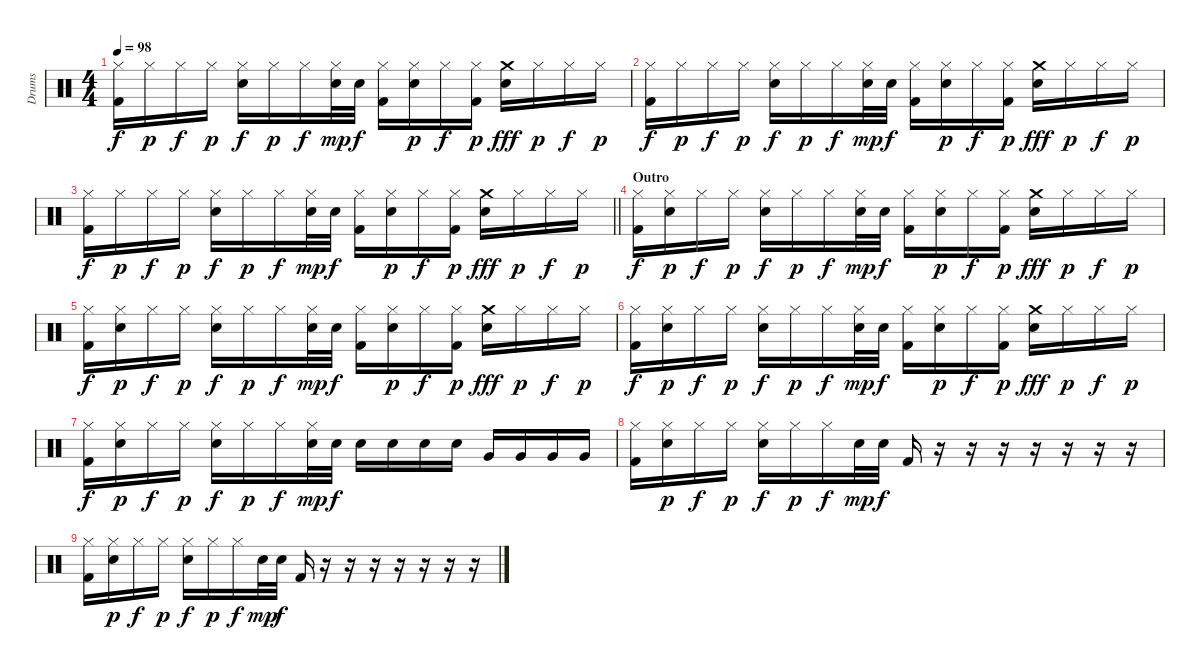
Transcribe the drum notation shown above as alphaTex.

\track ("Drums" "Drums") {instrument percussion}
\staff {score}
\articulation defaults
\ts (4 4)
\tempo 98
\clef neutral
\ks c
("Hi-Hat (closed)" "Kick (hit) 2").16{dy f} "Hi-Hat (closed)".16{dy p} "Hi-Hat (closed)".16{dy f} "Hi-Hat (closed)".16{dy p} ("Hi-Hat (closed)" "Electric Snare (hit)").16{dy f} "Hi-Hat (closed)".16{dy p} "Hi-Hat (closed)".16{dy f} ("Hi-Hat (closed)" "Electric Snare (hit)").32{dy mp} "Electric Snare (hit)".32{dy f} ("Hi-Hat (closed)" "Kick (hit) 2").16 ("Hi-Hat (closed)" "Electric Snare (hit)").16{dy p} "Hi-Hat (closed)".16{dy f} ("Hi-Hat (closed)" "Kick (hit) 2").16{dy p} ("Crash medium (hit)" "Electric Snare (hit)").16{dy fff} "Hi-Hat (closed)".16{dy p} "Hi-Hat (closed)".16{dy f} "Hi-Hat (closed)".16{dy p} |
("Hi-Hat (closed)" "Kick (hit) 2").16{dy f} "Hi-Hat (closed)".16{dy p} "Hi-Hat (closed)".16{dy f} "Hi-Hat (closed)".16{dy p} ("Hi-Hat (closed)" "Electric Snare (hit)").16{dy f} "Hi-Hat (closed)".16{dy p} "Hi-Hat (closed)".16{dy f} ("Hi-Hat (closed)" "Electric Snare (hit)").32{dy mp} "Electric Snare (hit)".32{dy f} ("Hi-Hat (closed)" "Kick (hit) 2").16 ("Hi-Hat (closed)" "Electric Snare (hit)").16{dy p} "Hi-Hat (closed)".16{dy f} ("Hi-Hat (closed)" "Kick (hit) 2").16{dy p} ("Crash medium (hit)" "Electric Snare (hit)").16{dy fff} "Hi-Hat (closed)".16{dy p} "Hi-Hat (closed)".16{dy f} "Hi-Hat (closed)".16{dy p} |
\barLineRight lightlight
("Hi-Hat (closed)" "Kick (hit) 2").16{dy f} "Hi-Hat (closed)".16{dy p} "Hi-Hat (closed)".16{dy f} "Hi-Hat (closed)".16{dy p} ("Hi-Hat (closed)" "Electric Snare (hit)").16{dy f} "Hi-Hat (closed)".16{dy p} "Hi-Hat (closed)".16{dy f} ("Hi-Hat (closed)" "Electric Snare (hit)").32{dy mp} "Electric Snare (hit)".32{dy f} ("Hi-Hat (closed)" "Kick (hit) 2").16 ("Hi-Hat (closed)" "Electric Snare (hit)").16{dy p} "Hi-Hat (closed)".16{dy f} ("Hi-Hat (closed)" "Kick (hit) 2").16{dy p} ("Crash medium (hit)" "Electric Snare (hit)").16{dy fff} "Hi-Hat (closed)".16{dy p} "Hi-Hat (closed)".16{dy f} "Hi-Hat (closed)".16{dy p} |
\section ("" "Outro")
("Hi-Hat (closed)" "Kick (hit) 2").16{dy f} ("Hi-Hat (closed)" "Electric Snare (hit)").16{dy p} "Hi-Hat (closed)".16{dy f} "Hi-Hat (closed)".16{dy p} ("Hi-Hat (closed)" "Electric Snare (hit)").16{dy f} "Hi-Hat (closed)".16{dy p} "Hi-Hat (closed)".16{dy f} ("Hi-Hat (closed)" "Electric Snare (hit)").32{dy mp} "Electric Snare (hit)".32{dy f} ("Hi-Hat (closed)" "Kick (hit) 2").16 ("Hi-Hat (closed)" "Electric Snare (hit)").16{dy p} "Hi-Hat (closed)".16{dy f} ("Hi-Hat (closed)" "Kick (hit) 2").16{dy p} ("Crash medium (hit)" "Electric Snare (hit)").16{dy fff} "Hi-Hat (closed)".16{dy p} "Hi-Hat (closed)".16{dy f} "Hi-Hat (closed)".16{dy p} |
("Hi-Hat (closed)" "Kick (hit) 2").16{dy f} ("Hi-Hat (closed)" "Electric Snare (hit)").16{dy p} "Hi-Hat (closed)".16{dy f} "Hi-Hat (closed)".16{dy p} ("Hi-Hat (closed)" "Electric Snare (hit)").16{dy f} "Hi-Hat (closed)".16{dy p} "Hi-Hat (closed)".16{dy f} ("Hi-Hat (closed)" "Electric Snare (hit)").32{dy mp} "Electric Snare (hit)".32{dy f} ("Hi-Hat (closed)" "Kick (hit) 2").16 ("Hi-Hat (closed)" "Electric Snare (hit)").16{dy p} "Hi-Hat (closed)".16{dy f} ("Hi-Hat (closed)" "Kick (hit) 2").16{dy p} ("Crash medium (hit)" "Electric Snare (hit)").16{dy fff} "Hi-Hat (closed)".16{dy p} "Hi-Hat (closed)".16{dy f} "Hi-Hat (closed)".16{dy p} |
("Hi-Hat (closed)" "Kick (hit) 2").16{dy f} ("Hi-Hat (closed)" "Electric Snare (hit)").16{dy p} "Hi-Hat (closed)".16{dy f} "Hi-Hat (closed)".16{dy p} ("Hi-Hat (closed)" "Electric Snare (hit)").16{dy f} "Hi-Hat (closed)".16{dy p} "Hi-Hat (closed)".16{dy f} ("Hi-Hat (closed)" "Electric Snare (hit)").32{dy mp} "Electric Snare (hit)".32{dy f} ("Hi-Hat (closed)" "Kick (hit) 2").16 ("Hi-Hat (closed)" "Electric Snare (hit)").16{dy p} "Hi-Hat (closed)".16{dy f} ("Hi-Hat (closed)" "Kick (hit) 2").16{dy p} ("Crash medium (hit)" "Electric Snare (hit)").16{dy fff} "Hi-Hat (closed)".16{dy p} "Hi-Hat (closed)".16{dy f} "Hi-Hat (closed)".16{dy p} |
("Hi-Hat (closed)" "Kick (hit) 2").16{dy f} ("Hi-Hat (closed)" "Electric Snare (hit)").16{dy p} "Hi-Hat (closed)".16{dy f} "Hi-Hat (closed)".16{dy p} ("Hi-Hat (closed)" "Electric Snare (hit)").16{dy f} "Hi-Hat (closed)".16{dy p} "Hi-Hat (closed)".16{dy f} ("Hi-Hat (closed)" "Snare (hit) 2").32{dy mp} "Snare (hit) 2".32{dy f} "Snare (hit) 2".16 "Snare (hit) 2".16 "Snare (hit) 2".16 "Snare (hit) 2".16 "Very Low Tom (hit)".16 "Very Low Tom (hit)".16 "Very Low Tom (hit)".16 "Very Low Tom (hit)".16 |
("Hi-Hat (closed)" "Kick (hit) 2").16 ("Hi-Hat (closed)" "Electric Snare (hit)").16{dy p} "Hi-Hat (closed)".16{dy f} "Hi-Hat (closed)".16{dy p} ("Hi-Hat (closed)" "Electric Snare (hit)").16{dy f} "Hi-Hat (closed)".16{dy p} "Hi-Hat (closed)".16{dy f} "Electric Snare (hit)".32{dy mp} "Electric Snare (hit)".32{dy f} "Kick (hit) 2".16 r.16 r.16 r.16 r.16 r.16 r.16 r.16 |
("Hi-Hat (closed)" "Kick (hit) 2").16 ("Hi-Hat (closed)" "Electric Snare (hit)").16{dy p} "Hi-Hat (closed)".16{dy f} "Hi-Hat (closed)".16{dy p} ("Hi-Hat (closed)" "Electric Snare (hit)").16{dy f} "Hi-Hat (closed)".16{dy p} "Hi-Hat (closed)".16{dy f} "Electric Snare (hit)".32{dy mp} "Electric Snare (hit)".32{dy f} "Kick (hit) 2".16 r.16 r.16 r.16 r.16 r.16 r.16 r.16
